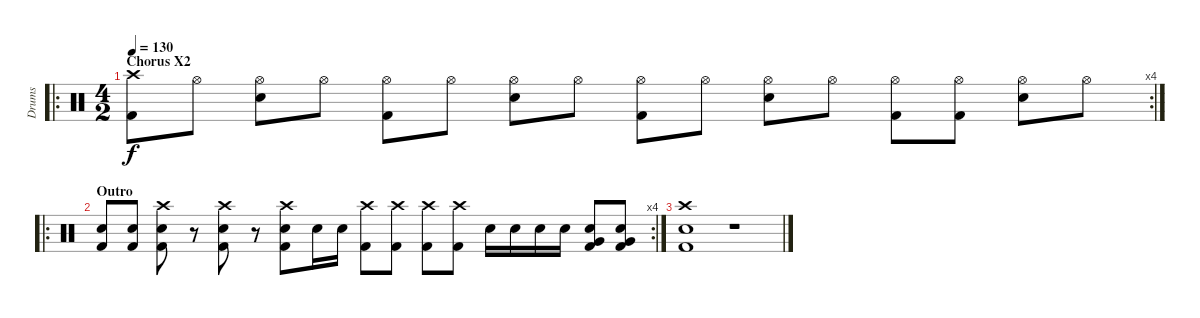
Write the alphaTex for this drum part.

\track ("Drums" "Drums") {instrument percussion}
\staff {score}
\articulation defaults
\ro
\rc 4
\ts (4 2)
\section ("" "Chorus X2")
\tempo 130
\clef neutral
\ks c
("Crash high (hit)" "Kick (hit) 2").8{dy f} "Hi-Hat (open)".8 ("Hi-Hat (open)" "Electric Snare (hit)").8 "Hi-Hat (open)".8 ("Hi-Hat (open)" "Kick (hit) 2").8 "Hi-Hat (open)".8 ("Hi-Hat (open)" "Electric Snare (hit)").8 "Hi-Hat (open)".8 ("Hi-Hat (open)" "Kick (hit) 2").8 "Hi-Hat (open)".8 ("Hi-Hat (open)" "Electric Snare (hit)").8 "Hi-Hat (open)".8 ("Hi-Hat (open)" "Kick (hit) 2").8 ("Hi-Hat (open)" "Kick (hit) 2").8 ("Hi-Hat (open)" "Electric Snare (hit)").8 "Hi-Hat (open)".8 |
\ro
\rc 4
\section ("" "Outro")
("Kick (hit) 2" "Electric Snare (hit)").8 ("Kick (hit) 2" "Electric Snare (hit)").8 ("Crash high (hit)" "Electric Snare (hit)" "Kick (hit) 2").8 r.8 ("Crash high (hit)" "Electric Snare (hit)" "Kick (hit) 2").8 r.8 ("Crash high (hit)" "Electric Snare (hit)" "Kick (hit) 2").8 "Electric Snare (hit)".16 "Electric Snare (hit)".16 ("Crash high (hit)" "Kick (hit) 2").8 ("Crash high (hit)" "Kick (hit) 2").8 ("Crash high (hit)" "Kick (hit) 2").8 ("Crash high (hit)" "Kick (hit) 2").8 "Electric Snare (hit)".16 "Electric Snare (hit)".16 "Electric Snare (hit)".16 "Electric Snare (hit)".16 ("Kick (hit) 2" "Very Low Tom (hit)" "Electric Snare (hit)").8 ("Kick (hit) 2" "Very Low Tom (hit)" "Electric Snare (hit)").8 |
("Crash high (hit)" "Electric Snare (hit)" "Kick (hit) 2").1 r.1
